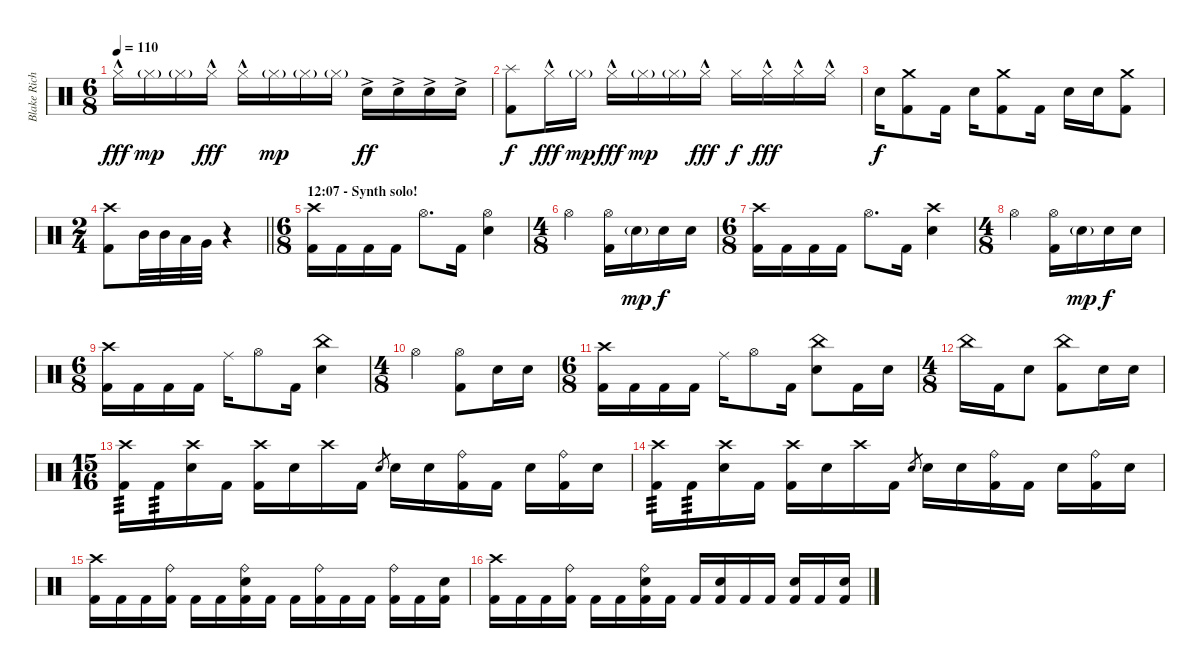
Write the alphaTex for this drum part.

\track ("Blake Richardson" "Blake Rich") {instrument percussion}
\staff {score}
\articulation defaults
\ts (6 8)
\tempo 110
\clef neutral
\ks c "Hi-Hat (closed)"{hac}.16{dy fff} "Hi-Hat (closed)"{g}.16{dy mp} "Hi-Hat (closed)"{g}.16 "Hi-Hat (closed)"{hac}.16{dy fff beam split} "Hi-Hat (closed)"{hac}.16 "Hi-Hat (closed)"{g}.16{dy mp beam merge} "Hi-Hat (closed)"{g}.16 "Hi-Hat (closed)"{g}.16{beam split} "Electric Snare (hit)"{ac}.16{dy ff} "Electric Snare (hit)"{ac}.16 "Electric Snare (hit)"{ac}.16 "Electric Snare (hit)"{ac}.16
|
("Splash (hit)" "Kick (hit) 2").8{dy f} "Hi-Hat (closed)"{hac}.16{dy fff} "Hi-Hat (closed)"{g}.16{dy mp beam split} "Hi-Hat (closed)"{hac}.16{dy fff} "Hi-Hat (closed)"{g}.16{dy mp beam merge} "Hi-Hat (closed)"{g}.16 "Hi-Hat (closed)"{hac}.16{dy fff beam split} "Hi-Hat (closed)".16{dy f} "Hi-Hat (closed)"{hac}.16{dy fff} "Hi-Hat (closed)"{hac}.16 "Hi-Hat (closed)"{hac}.16 |
"Electric Snare (hit)".16{dy f} ("Crash medium (hit)" "Kick (hit) 2").8 "Kick (hit) 2".16{beam split} "Electric Snare (hit)".16 ("Crash medium (hit)" "Kick (hit) 2").8{beam merge} "Kick (hit) 2".16{beam split} "Electric Snare (hit)".16 "Electric Snare (hit)".16 ("Crash medium (hit)" "Kick (hit) 2").8 |
\ts (2 4)
\barLineRight lightlight
("Crash high (hit)" "Kick (hit) 2").8 "Mid Tom (hit)".32 "Mid Tom (hit)".32 "Low Tom (hit)".32 "Very Low Tom (hit)".32 r.4 |
\ts (6 8)
\section ("" "12:07 - Synth solo!")
("Crash high (hit)" "Kick (hit) 2").16 "Kick (hit) 2".16 "Kick (hit) 2".16 "Kick (hit) 2".16{beam split} "Hi-Hat (open)".8{d beam merge} "Kick (hit) 2".16 ("Hi-Hat (open)" "Electric Snare (hit)").4 |
\ts (4 8)
"Hi-Hat (open)".4 ("Hi-Hat (open)" "Kick (hit) 2").16 "Electric Snare (hit)"{g}.16{dy mp beam merge} "Electric Snare (hit)".16{dy f} "Electric Snare (hit)".16 |
\ts (6 8)
("Crash high (hit)" "Kick (hit) 2").16 "Kick (hit) 2".16 "Kick (hit) 2".16 "Kick (hit) 2".16{beam split} "Hi-Hat (open)".8{d beam merge} "Kick (hit) 2".16 ("Crash high (hit)" "Electric Snare (hit)").4 |
\ts (4 8)
"Hi-Hat (open)".4 ("Hi-Hat (open)" "Kick (hit) 2").16 "Electric Snare (hit)"{g}.16{dy mp beam merge} "Electric Snare (hit)".16{dy f} "Electric Snare (hit)".16 |
\ts (6 8)
("Crash high (hit)" "Kick (hit) 2").16 "Kick (hit) 2".16 "Kick (hit) 2".16 "Kick (hit) 2".16{beam split} "Ride (middle)".16 "Hi-Hat (open)".8{beam merge} "Kick (hit) 2".16 ("China (hit)" "Electric Snare (hit)").4 |
\ts (4 8)
"Hi-Hat (open)".4 ("Hi-Hat (open)" "Kick (hit) 2").8{beam merge} "Electric Snare (hit)".16 "Electric Snare (hit)".16 |
\ts (6 8)
("Crash high (hit)" "Kick (hit) 2").16 "Kick (hit) 2".16 "Kick (hit) 2".16 "Kick (hit) 2".16{beam split} "Ride (middle)".16 "Hi-Hat (open)".8{beam merge} "Kick (hit) 2".16{beam split} ("China (hit)" "Electric Snare (hit)").8 "Kick (hit) 2".16 "Electric Snare (hit)".16 |
\ts (4 8)
"China (hit)".16 "Kick (hit) 2".16{beam merge} "Electric Snare (hit)".8 ("China (hit)" "Kick (hit) 2").8{beam merge} "Electric Snare (hit)".16 "Electric Snare (hit)".16 |
\ts (15 16)
("Crash high (hit)" "Kick (hit) 2").16{tp 3} "Kick (hit) 2".16{tp 3} ("Crash high (hit)" "Electric Snare (hit)").16 "Kick (hit) 2".16 ("Crash high (hit)" "Kick (hit) 2").16 "Electric Snare (hit)".16 "Crash high (hit)".16 "Kick (hit) 2".16 "Electric Snare (hit)".8{gr} "Electric Snare (hit)".16 "Electric Snare (hit)".16 ("Ride (bell)" "Kick (hit) 2").16 "Kick (hit) 2".16 "Electric Snare (hit)".16 ("Ride (bell)" "Kick (hit) 2").16 "Electric Snare (hit)".16 |
("Crash high (hit)" "Kick (hit) 2").16{tp 3} "Kick (hit) 2".16{tp 3} ("Crash high (hit)" "Electric Snare (hit)").16 "Kick (hit) 2".16 ("Crash high (hit)" "Kick (hit) 2").16 "Electric Snare (hit)".16 "Crash high (hit)".16 "Kick (hit) 2".16 "Electric Snare (hit)".8{gr} "Electric Snare (hit)".16 "Electric Snare (hit)".16 ("Ride (bell)" "Kick (hit) 2").16 "Kick (hit) 2".16 "Electric Snare (hit)".16 ("Ride (bell)" "Kick (hit) 2").16 "Electric Snare (hit)".16 |
("Crash high (hit)" "Kick (hit) 2").16 "Kick (hit) 2".16 "Kick (hit) 2".16 ("Ride (bell)" "Kick (hit) 2").16 "Kick (hit) 2".16 "Kick (hit) 2".16 ("Ride (bell)" "Electric Snare (hit)" "Kick (hit) 2").16 "Kick (hit) 2".16 "Kick (hit) 2".16 ("Ride (bell)" "Kick (hit) 2").16 "Kick (hit) 2".16 "Kick (hit) 2".16 ("Ride (bell)" "Kick (hit) 2").16 "Kick (hit) 2".16 ("Electric Snare (hit)" "Kick (hit) 2").16 |
("Crash high (hit)" "Kick (hit) 2").16 "Kick (hit) 2".16 "Kick (hit) 2".16 ("Ride (bell)" "Kick (hit) 2").16 "Kick (hit) 2".16 "Kick (hit) 2".16 ("Ride (bell)" "Electric Snare (hit)" "Kick (hit) 2").16 "Kick (hit) 2".16 "Kick (hit) 2".16 ("Electric Snare (hit)" "Kick (hit) 2").16 "Kick (hit) 2".16 "Kick (hit) 2".16 ("Electric Snare (hit)" "Kick (hit) 2").16 "Kick (hit) 2".16 ("Electric Snare (hit)" "Kick (hit) 2").16
